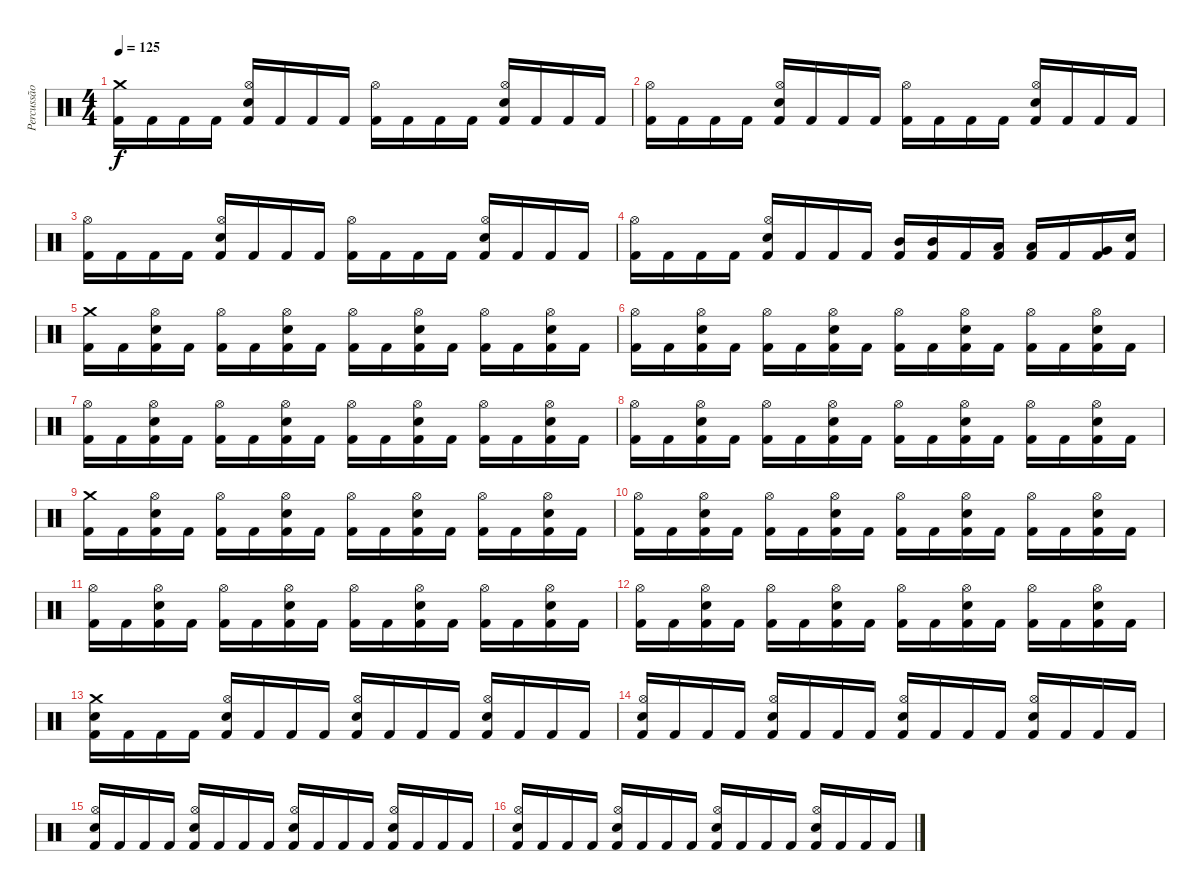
\track ("Percussão" "Percussão") {instrument percussion}
\staff {score}
\articulation defaults
\ts (4 4)
\tempo 125
\clef neutral
\ks c
("Crash medium (hit)" "Kick (hit) 2").16{dy f} "Kick (hit) 2".16 "Kick (hit) 2".16 "Kick (hit) 2".16 ("Hi-Hat (open)" "Electric Snare (hit)" "Kick (hit) 2").16 "Kick (hit) 2".16 "Kick (hit) 2".16 "Kick (hit) 2".16 ("Hi-Hat (open)" "Kick (hit) 2").16 "Kick (hit) 2".16 "Kick (hit) 2".16 "Kick (hit) 2".16 ("Hi-Hat (open)" "Electric Snare (hit)" "Kick (hit) 2").16 "Kick (hit) 2".16 "Kick (hit) 2".16 "Kick (hit) 2".16 |
("Hi-Hat (open)" "Kick (hit) 2").16 "Kick (hit) 2".16 "Kick (hit) 2".16 "Kick (hit) 2".16 ("Hi-Hat (open)" "Electric Snare (hit)" "Kick (hit) 2").16 "Kick (hit) 2".16 "Kick (hit) 2".16 "Kick (hit) 2".16 ("Hi-Hat (open)" "Kick (hit) 2").16 "Kick (hit) 2".16 "Kick (hit) 2".16 "Kick (hit) 2".16 ("Hi-Hat (open)" "Electric Snare (hit)" "Kick (hit) 2").16 "Kick (hit) 2".16 "Kick (hit) 2".16 "Kick (hit) 2".16 |
("Hi-Hat (open)" "Kick (hit) 2").16 "Kick (hit) 2".16 "Kick (hit) 2".16 "Kick (hit) 2".16 ("Hi-Hat (open)" "Electric Snare (hit)" "Kick (hit) 2").16 "Kick (hit) 2".16 "Kick (hit) 2".16 "Kick (hit) 2".16 ("Hi-Hat (open)" "Kick (hit) 2").16 "Kick (hit) 2".16 "Kick (hit) 2".16 "Kick (hit) 2".16 ("Hi-Hat (open)" "Electric Snare (hit)" "Kick (hit) 2").16 "Kick (hit) 2".16 "Kick (hit) 2".16 "Kick (hit) 2".16 |
("Hi-Hat (open)" "Kick (hit) 2").16 "Kick (hit) 2".16 "Kick (hit) 2".16 "Kick (hit) 2".16 ("Hi-Hat (open)" "Electric Snare (hit)" "Kick (hit) 2").16 "Kick (hit) 2".16 "Kick (hit) 2".16 "Kick (hit) 2".16 ("Mid Tom (hit)" "Kick (hit) 2").16 ("Mid Tom (hit)" "Kick (hit) 2").16 "Kick (hit) 2".16 ("Low Tom (hit)" "Kick (hit) 2").16 ("Low Tom (hit)" "Kick (hit) 2").16 "Kick (hit) 2".16 ("Very Low Tom (hit)" "Kick (hit) 2").16 ("Electric Snare (hit)" "Kick (hit) 2").16 |
("Crash medium (hit)" "Kick (hit) 2").16 "Kick (hit) 2".16 ("Hi-Hat (open)" "Electric Snare (hit)" "Kick (hit) 2").16 "Kick (hit) 2".16 ("Hi-Hat (open)" "Kick (hit) 2").16 "Kick (hit) 2".16 ("Hi-Hat (open)" "Electric Snare (hit)" "Kick (hit) 2").16 "Kick (hit) 2".16 ("Hi-Hat (open)" "Kick (hit) 2").16 "Kick (hit) 2".16 ("Hi-Hat (open)" "Electric Snare (hit)" "Kick (hit) 2").16 "Kick (hit) 2".16 ("Hi-Hat (open)" "Kick (hit) 2").16 "Kick (hit) 2".16 ("Hi-Hat (open)" "Electric Snare (hit)" "Kick (hit) 2").16 "Kick (hit) 2".16 |
("Hi-Hat (open)" "Kick (hit) 2").16 "Kick (hit) 2".16 ("Hi-Hat (open)" "Electric Snare (hit)" "Kick (hit) 2").16 "Kick (hit) 2".16 ("Hi-Hat (open)" "Kick (hit) 2").16 "Kick (hit) 2".16 ("Hi-Hat (open)" "Electric Snare (hit)" "Kick (hit) 2").16 "Kick (hit) 2".16 ("Hi-Hat (open)" "Kick (hit) 2").16 "Kick (hit) 2".16 ("Hi-Hat (open)" "Electric Snare (hit)" "Kick (hit) 2").16 "Kick (hit) 2".16 ("Hi-Hat (open)" "Kick (hit) 2").16 "Kick (hit) 2".16 ("Hi-Hat (open)" "Electric Snare (hit)" "Kick (hit) 2").16 "Kick (hit) 2".16 |
("Hi-Hat (open)" "Kick (hit) 2").16 "Kick (hit) 2".16 ("Hi-Hat (open)" "Electric Snare (hit)" "Kick (hit) 2").16 "Kick (hit) 2".16 ("Hi-Hat (open)" "Kick (hit) 2").16 "Kick (hit) 2".16 ("Hi-Hat (open)" "Electric Snare (hit)" "Kick (hit) 2").16 "Kick (hit) 2".16 ("Hi-Hat (open)" "Kick (hit) 2").16 "Kick (hit) 2".16 ("Hi-Hat (open)" "Electric Snare (hit)" "Kick (hit) 2").16 "Kick (hit) 2".16 ("Hi-Hat (open)" "Kick (hit) 2").16 "Kick (hit) 2".16 ("Hi-Hat (open)" "Electric Snare (hit)" "Kick (hit) 2").16 "Kick (hit) 2".16 |
("Hi-Hat (open)" "Kick (hit) 2").16 "Kick (hit) 2".16 ("Hi-Hat (open)" "Electric Snare (hit)" "Kick (hit) 2").16 "Kick (hit) 2".16 ("Hi-Hat (open)" "Kick (hit) 2").16 "Kick (hit) 2".16 ("Hi-Hat (open)" "Electric Snare (hit)" "Kick (hit) 2").16 "Kick (hit) 2".16 ("Hi-Hat (open)" "Kick (hit) 2").16 "Kick (hit) 2".16 ("Hi-Hat (open)" "Electric Snare (hit)" "Kick (hit) 2").16 "Kick (hit) 2".16 ("Hi-Hat (open)" "Kick (hit) 2").16 "Kick (hit) 2".16 ("Hi-Hat (open)" "Electric Snare (hit)" "Kick (hit) 2").16 "Kick (hit) 2".16 |
("Crash medium (hit)" "Kick (hit) 2").16 "Kick (hit) 2".16 ("Hi-Hat (open)" "Electric Snare (hit)" "Kick (hit) 2").16 "Kick (hit) 2".16 ("Hi-Hat (open)" "Kick (hit) 2").16 "Kick (hit) 2".16 ("Hi-Hat (open)" "Electric Snare (hit)" "Kick (hit) 2").16 "Kick (hit) 2".16 ("Hi-Hat (open)" "Kick (hit) 2").16 "Kick (hit) 2".16 ("Hi-Hat (open)" "Electric Snare (hit)" "Kick (hit) 2").16 "Kick (hit) 2".16 ("Hi-Hat (open)" "Kick (hit) 2").16 "Kick (hit) 2".16 ("Hi-Hat (open)" "Electric Snare (hit)" "Kick (hit) 2").16 "Kick (hit) 2".16 |
("Hi-Hat (open)" "Kick (hit) 2").16 "Kick (hit) 2".16 ("Hi-Hat (open)" "Electric Snare (hit)" "Kick (hit) 2").16 "Kick (hit) 2".16 ("Hi-Hat (open)" "Kick (hit) 2").16 "Kick (hit) 2".16 ("Hi-Hat (open)" "Electric Snare (hit)" "Kick (hit) 2").16 "Kick (hit) 2".16 ("Hi-Hat (open)" "Kick (hit) 2").16 "Kick (hit) 2".16 ("Hi-Hat (open)" "Electric Snare (hit)" "Kick (hit) 2").16 "Kick (hit) 2".16 ("Hi-Hat (open)" "Kick (hit) 2").16 "Kick (hit) 2".16 ("Hi-Hat (open)" "Electric Snare (hit)" "Kick (hit) 2").16 "Kick (hit) 2".16 |
("Hi-Hat (open)" "Kick (hit) 2").16 "Kick (hit) 2".16 ("Hi-Hat (open)" "Electric Snare (hit)" "Kick (hit) 2").16 "Kick (hit) 2".16 ("Hi-Hat (open)" "Kick (hit) 2").16 "Kick (hit) 2".16 ("Hi-Hat (open)" "Electric Snare (hit)" "Kick (hit) 2").16 "Kick (hit) 2".16 ("Hi-Hat (open)" "Kick (hit) 2").16 "Kick (hit) 2".16 ("Hi-Hat (open)" "Electric Snare (hit)" "Kick (hit) 2").16 "Kick (hit) 2".16 ("Hi-Hat (open)" "Kick (hit) 2").16 "Kick (hit) 2".16 ("Hi-Hat (open)" "Electric Snare (hit)" "Kick (hit) 2").16 "Kick (hit) 2".16 |
("Hi-Hat (open)" "Kick (hit) 2").16 "Kick (hit) 2".16 ("Hi-Hat (open)" "Electric Snare (hit)" "Kick (hit) 2").16 "Kick (hit) 2".16 ("Hi-Hat (open)" "Kick (hit) 2").16 "Kick (hit) 2".16 ("Hi-Hat (open)" "Electric Snare (hit)" "Kick (hit) 2").16 "Kick (hit) 2".16 ("Hi-Hat (open)" "Kick (hit) 2").16 "Kick (hit) 2".16 ("Hi-Hat (open)" "Electric Snare (hit)" "Kick (hit) 2").16 "Kick (hit) 2".16 ("Hi-Hat (open)" "Kick (hit) 2").16 "Kick (hit) 2".16 ("Hi-Hat (open)" "Electric Snare (hit)" "Kick (hit) 2").16 "Kick (hit) 2".16 |
("Crash medium (hit)" "Electric Snare (hit)" "Kick (hit) 2").16 "Kick (hit) 2".16 "Kick (hit) 2".16 "Kick (hit) 2".16 ("Hi-Hat (open)" "Electric Snare (hit)" "Kick (hit) 2").16 "Kick (hit) 2".16 "Kick (hit) 2".16 "Kick (hit) 2".16 ("Hi-Hat (open)" "Electric Snare (hit)" "Kick (hit) 2").16 "Kick (hit) 2".16 "Kick (hit) 2".16 "Kick (hit) 2".16 ("Hi-Hat (open)" "Electric Snare (hit)" "Kick (hit) 2").16 "Kick (hit) 2".16 "Kick (hit) 2".16 "Kick (hit) 2".16 |
("Hi-Hat (open)" "Electric Snare (hit)" "Kick (hit) 2").16 "Kick (hit) 2".16 "Kick (hit) 2".16 "Kick (hit) 2".16 ("Hi-Hat (open)" "Electric Snare (hit)" "Kick (hit) 2").16 "Kick (hit) 2".16 "Kick (hit) 2".16 "Kick (hit) 2".16 ("Hi-Hat (open)" "Electric Snare (hit)" "Kick (hit) 2").16 "Kick (hit) 2".16 "Kick (hit) 2".16 "Kick (hit) 2".16 ("Hi-Hat (open)" "Electric Snare (hit)" "Kick (hit) 2").16 "Kick (hit) 2".16 "Kick (hit) 2".16 "Kick (hit) 2".16 |
("Hi-Hat (open)" "Electric Snare (hit)" "Kick (hit) 2").16 "Kick (hit) 2".16 "Kick (hit) 2".16 "Kick (hit) 2".16 ("Hi-Hat (open)" "Electric Snare (hit)" "Kick (hit) 2").16 "Kick (hit) 2".16 "Kick (hit) 2".16 "Kick (hit) 2".16 ("Hi-Hat (open)" "Electric Snare (hit)" "Kick (hit) 2").16 "Kick (hit) 2".16 "Kick (hit) 2".16 "Kick (hit) 2".16 ("Hi-Hat (open)" "Electric Snare (hit)" "Kick (hit) 2").16 "Kick (hit) 2".16 "Kick (hit) 2".16 "Kick (hit) 2".16 |
("Hi-Hat (open)" "Electric Snare (hit)" "Kick (hit) 2").16 "Kick (hit) 2".16 "Kick (hit) 2".16 "Kick (hit) 2".16 ("Hi-Hat (open)" "Electric Snare (hit)" "Kick (hit) 2").16 "Kick (hit) 2".16 "Kick (hit) 2".16 "Kick (hit) 2".16 ("Hi-Hat (open)" "Electric Snare (hit)" "Kick (hit) 2").16 "Kick (hit) 2".16 "Kick (hit) 2".16 "Kick (hit) 2".16 ("Hi-Hat (open)" "Electric Snare (hit)" "Kick (hit) 2").16 "Kick (hit) 2".16 "Kick (hit) 2".16 "Kick (hit) 2".16
